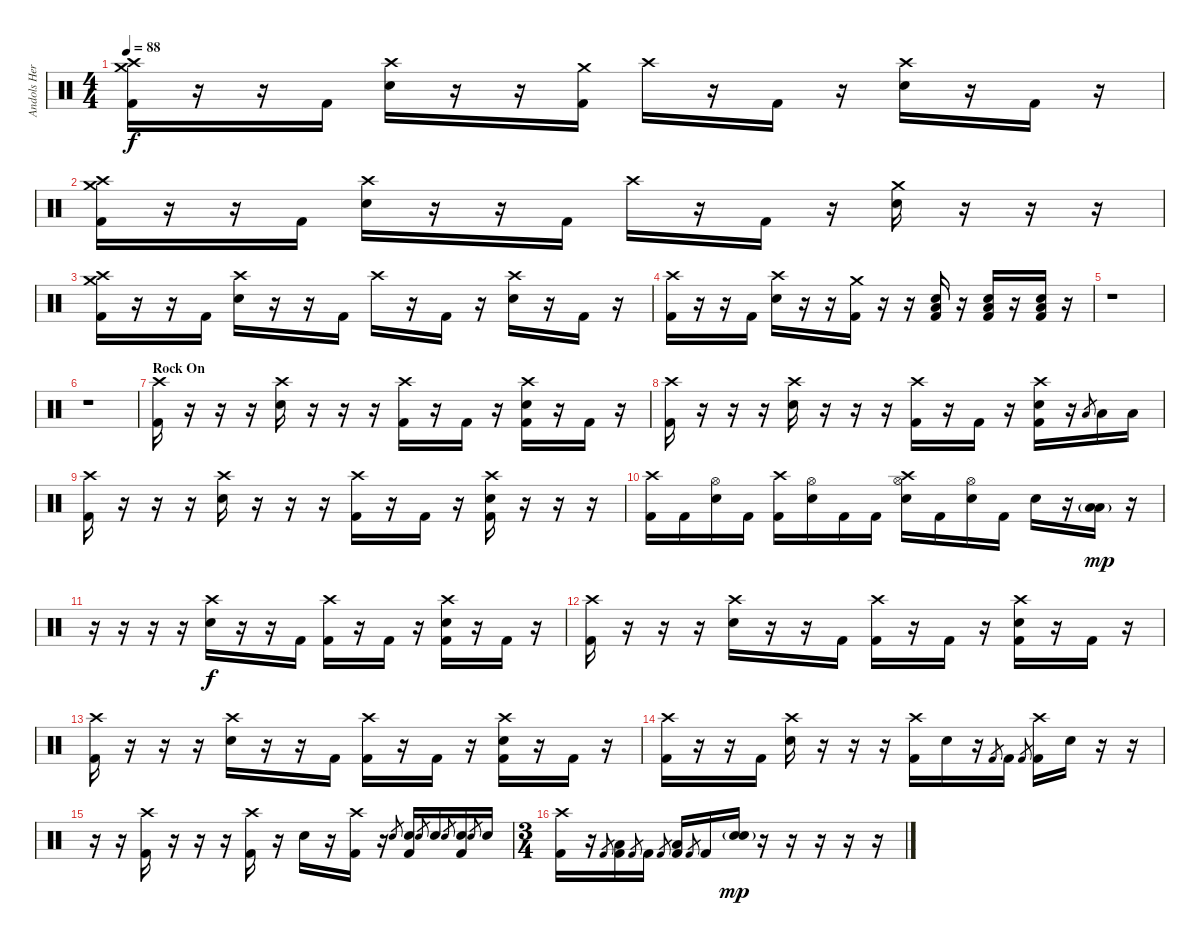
\track ("Andols Herrick" "Andols Her") {instrument percussion}
\staff {score}
\articulation defaults
\ts (4 4)
\tempo 88
\clef neutral
\ks c
("Crash high (hit)" "Crash medium (hit)" "Kick (hit) 2").16{dy f} r.16 r.16 "Kick (hit) 2".16 ("Crash high (hit)" "Snare (hit) 2").16 r.16 r.16 ("Crash medium (hit)" "Kick (hit) 2").16 "Crash high (hit)".16 r.16 "Kick (hit) 2".16 r.16 ("Crash high (hit)" "Snare (hit) 2").16 r.16 "Kick (hit) 2".16 r.16 |
("Crash high (hit)" "Crash medium (hit)" "Kick (hit) 2").16 r.16 r.16 "Kick (hit) 2".16 ("Crash high (hit)" "Snare (hit) 2").16 r.16 r.16 "Kick (hit) 2".16 "Crash high (hit)".16 r.16 "Kick (hit) 2".16 r.16 ("Crash medium (hit)" "Snare (hit) 2").16 r.16 r.16 r.16 |
("Crash high (hit)" "Crash medium (hit)" "Kick (hit) 2").16 r.16 r.16 "Kick (hit) 2".16 ("Crash high (hit)" "Snare (hit) 2").16 r.16 r.16 "Kick (hit) 2".16 "Crash high (hit)".16 r.16 "Kick (hit) 2".16 r.16 ("Crash high (hit)" "Snare (hit) 2").16 r.16 "Kick (hit) 2".16 r.16 |
("Crash high (hit)" "Kick (hit) 2").16 r.16 r.16 "Kick (hit) 2".16 ("Crash high (hit)" "Snare (hit) 2").16 r.16 r.16 ("Crash medium (hit)" "Kick (hit) 2").16 r.16 r.16 ("Low Floor Tom (hit)" "Snare (hit) 2" "Kick (hit) 2").16 r.16 ("Low Floor Tom (hit)" "Snare (hit) 2" "Kick (hit) 2").16 r.16 ("Low Floor Tom (hit)" "Snare (hit) 2" "Kick (hit) 2").16 r.16 |
r.1 |
r.1 |
\section ("" "Rock On")
("Crash high (hit)" "Kick (hit) 2").16 r.16 r.16 r.16 ("Crash high (hit)" "Snare (hit) 2").16 r.16 r.16 r.16 ("Crash high (hit)" "Kick (hit) 2").16 r.16 "Kick (hit) 2".16 r.16 ("Crash high (hit)" "Snare (hit) 2" "Kick (hit) 2").16 r.16 "Kick (hit) 2".16 r.16 |
("Crash high (hit)" "Kick (hit) 2").16 r.16 r.16 r.16 ("Crash high (hit)" "Snare (hit) 2").16 r.16 r.16 r.16 ("Crash high (hit)" "Kick (hit) 2").16 r.16 "Kick (hit) 2".16 r.16 ("Crash high (hit)" "Snare (hit) 2" "Kick (hit) 2").16 r.16 "Low Tom (hit)".8{gr} "Low Tom (hit)".16 "Low Tom (hit)".16 |
("Crash high (hit)" "Kick (hit) 2").16 r.16 r.16 r.16 ("Crash high (hit)" "Snare (hit) 2").16 r.16 r.16 r.16 ("Crash high (hit)" "Kick (hit) 2").16 r.16 "Kick (hit) 2".16 r.16 ("Crash high (hit)" "Snare (hit) 2" "Kick (hit) 2").16 r.16 r.16 r.16 |
("Crash high (hit)" "Kick (hit) 2").16 "Kick (hit) 2".16 ("Hi-Hat (open)" "Snare (hit) 2").16 "Kick (hit) 2".16 ("Crash high (hit)" "Kick (hit) 2").16 ("Hi-Hat (open)" "Snare (hit) 2").16 "Kick (hit) 2".16 "Kick (hit) 2".16 ("Crash high (hit)" "Hi-Hat (open)" "Snare (hit) 2").16 "Kick (hit) 2".16 ("Hi-Hat (open)" "Snare (hit) 2").16 "Kick (hit) 2".16 "Snare (hit) 2".16 r.16 ("Low Floor Tom (hit)"{g} "Low Floor Tom (hit)").16{dy mp} r.16 |
r.16 r.16 r.16 r.16 ("Crash high (hit)" "Snare (hit) 2").16{dy f} r.16 r.16 "Kick (hit) 2".16 ("Crash high (hit)" "Kick (hit) 2").16 r.16 "Kick (hit) 2".16 r.16 ("Crash high (hit)" "Snare (hit) 2" "Kick (hit) 2").16 r.16 "Kick (hit) 2".16 r.16 |
("Crash high (hit)" "Kick (hit) 2").16 r.16 r.16 r.16 ("Crash high (hit)" "Snare (hit) 2").16 r.16 r.16 "Kick (hit) 2".16 ("Crash high (hit)" "Kick (hit) 2").16 r.16 "Kick (hit) 2".16 r.16 ("Crash high (hit)" "Snare (hit) 2" "Kick (hit) 2").16 r.16 "Kick (hit) 2".16 r.16 |
("Crash high (hit)" "Kick (hit) 2").16 r.16 r.16 r.16 ("Crash high (hit)" "Snare (hit) 2").16 r.16 r.16 "Kick (hit) 2".16 ("Crash high (hit)" "Kick (hit) 2").16 r.16 "Kick (hit) 2".16 r.16 ("Crash high (hit)" "Snare (hit) 2" "Kick (hit) 2").16 r.16 "Kick (hit) 2".16 r.16 |
("Crash high (hit)" "Kick (hit) 2").16 r.16 r.16 "Kick (hit) 2".16 ("Crash high (hit)" "Snare (hit) 2").16 r.16 r.16 r.16 ("Crash high (hit)" "Kick (hit) 2").16 "Snare (hit) 2".16 r.16 "Kick (hit) 2".8{gr} "Kick (hit) 2".16 "Kick (hit) 2".8{gr} ("Crash high (hit)" "Kick (hit) 2").16 "Snare (hit) 2".16 r.16 r.16 |
r.16 r.16 ("Crash high (hit)" "Kick (hit) 2").16 r.16 r.16 r.16 ("Crash high (hit)" "Kick (hit) 2").16 r.16 "Snare (hit) 2".16 r.16 ("Crash high (hit)" "Kick (hit) 2").16 r.16 "Snare (hit) 2".8{gr} ("Snare (hit) 2" "Kick (hit) 2").16 "Snare (hit) 2".8{gr} "Snare (hit) 2".16 "Snare (hit) 2".8{gr} ("Snare (hit) 2" "Kick (hit) 2").16 "Snare (hit) 2".8{gr} "Snare (hit) 2".16 |
\ts (3 4)
("Crash high (hit)" "Kick (hit) 2").16 r.16 "Kick (hit) 2".8{gr} ("Low Floor Tom (hit)" "Kick (hit) 2").16 "Kick (hit) 2".8{gr} "Kick (hit) 2".16 "Kick (hit) 2".8{gr} ("Low Floor Tom (hit)" "Kick (hit) 2").16 "Kick (hit) 2".8{gr} "Kick (hit) 2".16 ("Snare (hit) 2"{g} "Snare (hit) 2").16{dy mp} r.16 r.16 r.16 r.16 r.16
